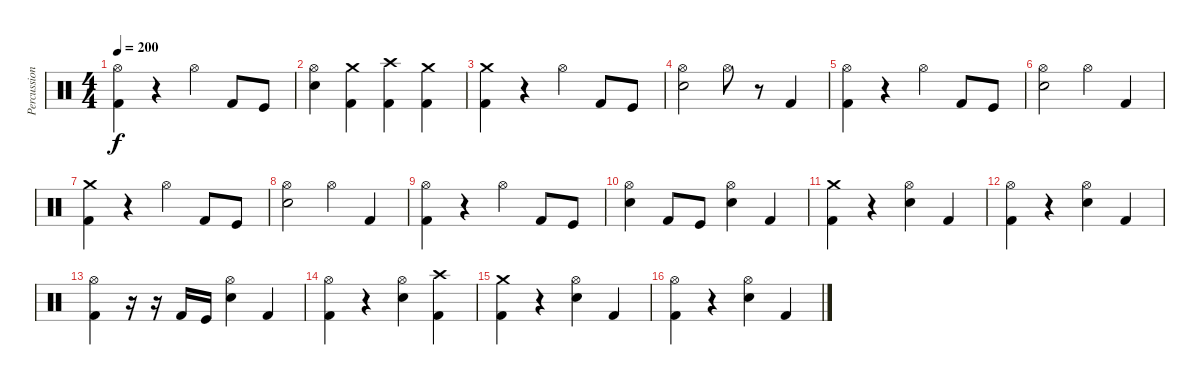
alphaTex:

\track ("Percussion" "Percussion") {instrument percussion}
\staff {score}
\articulation defaults
\ts (4 4)
\tempo 200
\clef neutral
\ks c
("Hi-Hat (open)" "Kick (hit) 2").4{dy f} r.4 "Hi-Hat (open)".4 "Kick (hit) 2".8 "Kick (hit)".8 |
("Hi-Hat (open)" "Snare (hit) 2").4 ("Crash medium (hit)" "Kick (hit) 2").4 ("Crash high (hit)" "Kick (hit) 2").4 ("Crash medium (hit)" "Kick (hit) 2").4 |
("Crash medium (hit)" "Kick (hit) 2").4 r.4 "Hi-Hat (open)".4 "Kick (hit) 2".8 "Kick (hit)".8 |
("Hi-Hat (open)" "Snare (hit) 2").2 "Hi-Hat (open)".8 r.8 "Kick (hit) 2".4 |
("Hi-Hat (open)" "Kick (hit) 2").4 r.4 "Hi-Hat (open)".4 "Kick (hit) 2".8 "Kick (hit)".8 |
("Hi-Hat (open)" "Snare (hit) 2").2 "Hi-Hat (open)".4 "Kick (hit) 2".4 |
("Crash medium (hit)" "Kick (hit) 2").4 r.4 "Hi-Hat (open)".4 "Kick (hit) 2".8 "Kick (hit)".8 |
("Hi-Hat (open)" "Snare (hit) 2").2 "Hi-Hat (open)".4 "Kick (hit) 2".4 |
("Hi-Hat (open)" "Kick (hit) 2").4 r.4 "Hi-Hat (open)".4 "Kick (hit) 2".8 "Kick (hit)".8 |
("Hi-Hat (open)" "Snare (hit) 2").4 "Kick (hit) 2".8 "Kick (hit)".8 ("Hi-Hat (open)" "Snare (hit) 2").4 "Kick (hit) 2".4 |
("Crash medium (hit)" "Kick (hit) 2").4 r.4 ("Hi-Hat (open)" "Snare (hit) 2").4 "Kick (hit) 2".4 |
("Hi-Hat (open)" "Kick (hit) 2").4 r.4 ("Hi-Hat (open)" "Snare (hit) 2").4 "Kick (hit) 2".4 |
("Hi-Hat (open)" "Kick (hit) 2").4 r.16 r.16 "Kick (hit) 2".16 "Kick (hit)".16 ("Hi-Hat (open)" "Snare (hit) 2").4 "Kick (hit) 2".4 |
("Hi-Hat (open)" "Kick (hit) 2").4 r.4 ("Hi-Hat (open)" "Snare (hit) 2").4 ("Crash high (hit)" "Kick (hit) 2").4 |
("Crash medium (hit)" "Kick (hit) 2").4 r.4 ("Hi-Hat (open)" "Snare (hit) 2").4 "Kick (hit) 2".4 |
("Hi-Hat (open)" "Kick (hit) 2").4 r.4 ("Hi-Hat (open)" "Snare (hit) 2").4 "Kick (hit) 2".4
